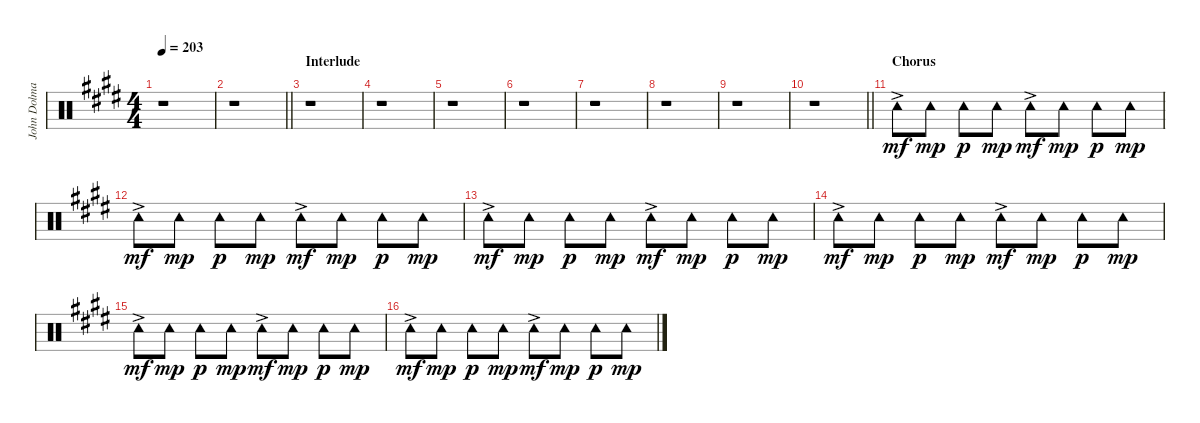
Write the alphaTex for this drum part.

\track ("John Dolmayan [Tambourine]" "John Dolma") {instrument percussion}
\staff {score}
\articulation defaults
\ts (4 4)
\tempo 203
\clef neutral
\ks c#minor
r.1{dy mp} |
\barLineRight lightlight
r.1 |
\section ("" "Interlude")
r.1 |
r.1 |
r.1 |
r.1 |
r.1 |
r.1 |
r.1 |
\barLineRight lightlight
r.1 |
\section ("" "Chorus")
"Tambourine (hit)"{ac}.8{dy mf} "Tambourine (hit)".8{dy mp} "Tambourine (hit)".8{dy p} "Tambourine (hit)".8{dy mp} "Tambourine (hit)"{ac}.8{dy mf} "Tambourine (hit)".8{dy mp} "Tambourine (hit)".8{dy p} "Tambourine (hit)".8{dy mp} |
"Tambourine (hit)"{ac}.8{dy mf} "Tambourine (hit)".8{dy mp} "Tambourine (hit)".8{dy p} "Tambourine (hit)".8{dy mp} "Tambourine (hit)"{ac}.8{dy mf} "Tambourine (hit)".8{dy mp} "Tambourine (hit)".8{dy p} "Tambourine (hit)".8{dy mp} |
"Tambourine (hit)"{ac}.8{dy mf} "Tambourine (hit)".8{dy mp} "Tambourine (hit)".8{dy p} "Tambourine (hit)".8{dy mp} "Tambourine (hit)"{ac}.8{dy mf} "Tambourine (hit)".8{dy mp} "Tambourine (hit)".8{dy p} "Tambourine (hit)".8{dy mp} |
"Tambourine (hit)"{ac}.8{dy mf} "Tambourine (hit)".8{dy mp} "Tambourine (hit)".8{dy p} "Tambourine (hit)".8{dy mp} "Tambourine (hit)"{ac}.8{dy mf} "Tambourine (hit)".8{dy mp} "Tambourine (hit)".8{dy p} "Tambourine (hit)".8{dy mp} |
"Tambourine (hit)"{ac}.8{dy mf} "Tambourine (hit)".8{dy mp} "Tambourine (hit)".8{dy p} "Tambourine (hit)".8{dy mp} "Tambourine (hit)"{ac}.8{dy mf} "Tambourine (hit)".8{dy mp} "Tambourine (hit)".8{dy p} "Tambourine (hit)".8{dy mp} |
"Tambourine (hit)"{ac}.8{dy mf} "Tambourine (hit)".8{dy mp} "Tambourine (hit)".8{dy p} "Tambourine (hit)".8{dy mp} "Tambourine (hit)"{ac}.8{dy mf} "Tambourine (hit)".8{dy mp} "Tambourine (hit)".8{dy p} "Tambourine (hit)".8{dy mp}
